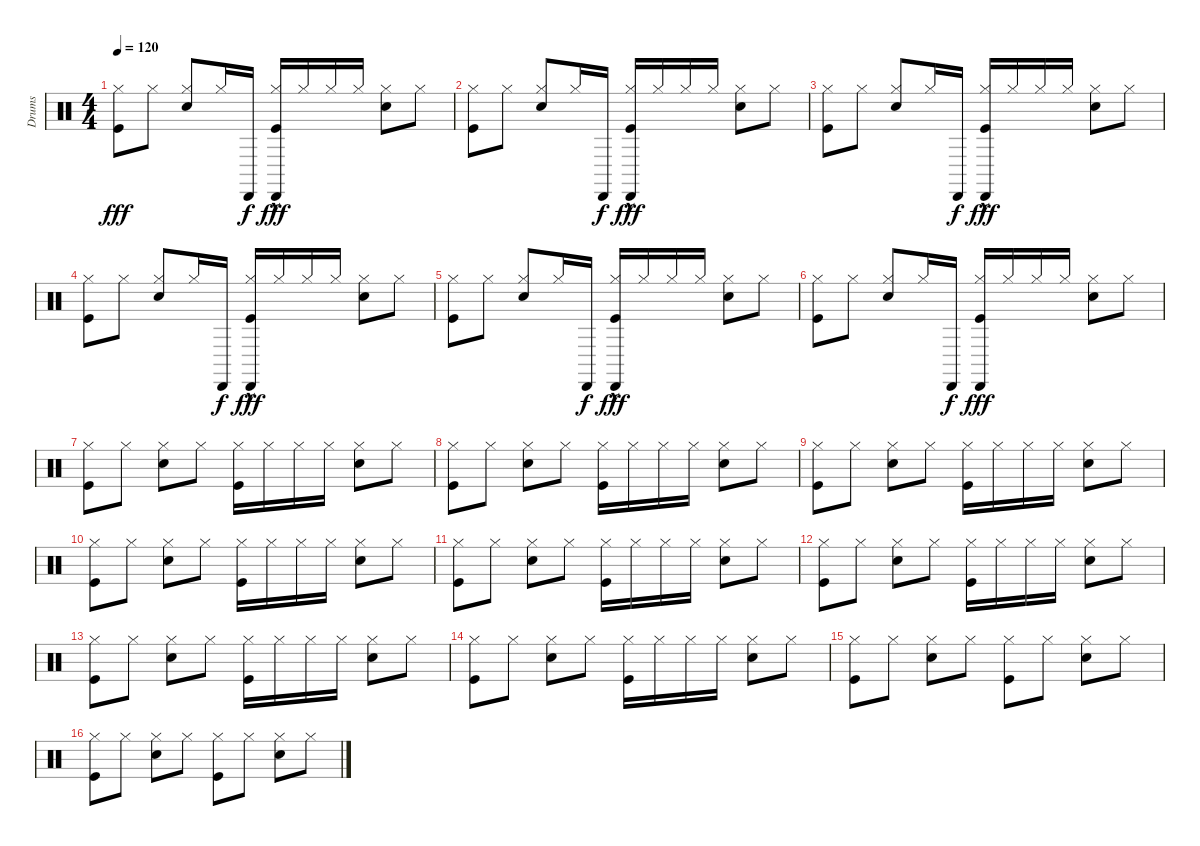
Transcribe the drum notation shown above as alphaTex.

\track ("Drums" "Drums") {instrument percussion}
\staff {score}
\articulation defaults
\ts (4 4)
\tempo 120
\clef neutral
\ks c
("Kick (hit)" "Hi-Hat (closed)").8{dy fff} "Hi-Hat (closed)".8 ("Snare (hit) 2" "Hi-Hat (closed)").8 "Hi-Hat (closed)".16 "Cabasa (hit)".16{dy f} ("Cabasa (hit)"{hac} "Kick (hit)" "Hi-Hat (closed)").16{dy fff} "Hi-Hat (closed)".16 "Hi-Hat (closed)".16 "Hi-Hat (closed)".16 ("Snare (hit) 2" "Hi-Hat (closed)").8 "Hi-Hat (closed)".8 |
("Kick (hit)" "Hi-Hat (closed)").8 "Hi-Hat (closed)".8 ("Snare (hit) 2" "Hi-Hat (closed)").8 "Hi-Hat (closed)".16 "Cabasa (hit)".16{dy f} ("Cabasa (hit)"{hac} "Kick (hit)" "Hi-Hat (closed)").16{dy fff} "Hi-Hat (closed)".16 "Hi-Hat (closed)".16 "Hi-Hat (closed)".16 ("Snare (hit) 2" "Hi-Hat (closed)").8 "Hi-Hat (closed)".8 |
("Kick (hit)" "Hi-Hat (closed)").8 "Hi-Hat (closed)".8 ("Snare (hit) 2" "Hi-Hat (closed)").8 "Hi-Hat (closed)".16 "Cabasa (hit)".16{dy f} ("Cabasa (hit)"{hac} "Kick (hit)" "Hi-Hat (closed)").16{dy fff} "Hi-Hat (closed)".16 "Hi-Hat (closed)".16 "Hi-Hat (closed)".16 ("Snare (hit) 2" "Hi-Hat (closed)").8 "Hi-Hat (closed)".8 |
("Kick (hit)" "Hi-Hat (closed)").8 "Hi-Hat (closed)".8 ("Snare (hit) 2" "Hi-Hat (closed)").8 "Hi-Hat (closed)".16 "Cabasa (hit)".16{dy f} ("Cabasa (hit)"{hac} "Kick (hit)" "Hi-Hat (closed)").16{dy fff} "Hi-Hat (closed)".16 "Hi-Hat (closed)".16 "Hi-Hat (closed)".16 ("Snare (hit) 2" "Hi-Hat (closed)").8 "Hi-Hat (closed)".8 |
("Kick (hit)" "Hi-Hat (closed)").8 "Hi-Hat (closed)".8 ("Snare (hit) 2" "Hi-Hat (closed)").8 "Hi-Hat (closed)".16 "Cabasa (hit)".16{dy f} ("Cabasa (hit)"{hac} "Kick (hit)" "Hi-Hat (closed)").16{dy fff} "Hi-Hat (closed)".16 "Hi-Hat (closed)".16 "Hi-Hat (closed)".16 ("Snare (hit) 2" "Hi-Hat (closed)").8 "Hi-Hat (closed)".8 |
("Kick (hit)" "Hi-Hat (closed)").8 "Hi-Hat (closed)".8 ("Snare (hit) 2" "Hi-Hat (closed)").8 "Hi-Hat (closed)".16 "Cabasa (hit)".16{dy f} ("Cabasa (hit)" "Kick (hit)" "Hi-Hat (closed)").16{dy fff} "Hi-Hat (closed)".16 "Hi-Hat (closed)".16 "Hi-Hat (closed)".16 ("Snare (hit) 2" "Hi-Hat (closed)").8 "Hi-Hat (closed)".8 |
("Kick (hit)" "Hi-Hat (closed)").8 "Hi-Hat (closed)".8 ("Snare (hit) 2" "Hi-Hat (closed)").8 "Hi-Hat (closed)".8 ("Kick (hit)" "Hi-Hat (closed)").16 "Hi-Hat (closed)".16 "Hi-Hat (closed)".16 "Hi-Hat (closed)".16 ("Snare (hit) 2" "Hi-Hat (closed)").8 "Hi-Hat (closed)".8 |
("Kick (hit)" "Hi-Hat (closed)").8 "Hi-Hat (closed)".8 ("Snare (hit) 2" "Hi-Hat (closed)").8 "Hi-Hat (closed)".8 ("Kick (hit)" "Hi-Hat (closed)").16 "Hi-Hat (closed)".16 "Hi-Hat (closed)".16 "Hi-Hat (closed)".16 ("Snare (hit) 2" "Hi-Hat (closed)").8 "Hi-Hat (closed)".8 |
("Kick (hit)" "Hi-Hat (closed)").8 "Hi-Hat (closed)".8 ("Snare (hit) 2" "Hi-Hat (closed)").8 "Hi-Hat (closed)".8 ("Kick (hit)" "Hi-Hat (closed)").16 "Hi-Hat (closed)".16 "Hi-Hat (closed)".16 "Hi-Hat (closed)".16 ("Snare (hit) 2" "Hi-Hat (closed)").8 "Hi-Hat (closed)".8 |
("Kick (hit)" "Hi-Hat (closed)").8 "Hi-Hat (closed)".8 ("Snare (hit) 2" "Hi-Hat (closed)").8 "Hi-Hat (closed)".8 ("Kick (hit)" "Hi-Hat (closed)").16 "Hi-Hat (closed)".16 "Hi-Hat (closed)".16 "Hi-Hat (closed)".16 ("Snare (hit) 2" "Hi-Hat (closed)").8 "Hi-Hat (closed)".8 |
("Kick (hit)" "Hi-Hat (closed)").8 "Hi-Hat (closed)".8 ("Snare (hit) 2" "Hi-Hat (closed)").8 "Hi-Hat (closed)".8 ("Kick (hit)" "Hi-Hat (closed)").16 "Hi-Hat (closed)".16 "Hi-Hat (closed)".16 "Hi-Hat (closed)".16 ("Snare (hit) 2" "Hi-Hat (closed)").8 "Hi-Hat (closed)".8 |
("Kick (hit)" "Hi-Hat (closed)").8 "Hi-Hat (closed)".8 ("Snare (hit) 2" "Hi-Hat (closed)").8 "Hi-Hat (closed)".8 ("Kick (hit)" "Hi-Hat (closed)").16 "Hi-Hat (closed)".16 "Hi-Hat (closed)".16 "Hi-Hat (closed)".16 ("Snare (hit) 2" "Hi-Hat (closed)").8 "Hi-Hat (closed)".8 |
("Kick (hit)" "Hi-Hat (closed)").8 "Hi-Hat (closed)".8 ("Snare (hit) 2" "Hi-Hat (closed)").8 "Hi-Hat (closed)".8 ("Kick (hit)" "Hi-Hat (closed)").16 "Hi-Hat (closed)".16 "Hi-Hat (closed)".16 "Hi-Hat (closed)".16 ("Snare (hit) 2" "Hi-Hat (closed)").8 "Hi-Hat (closed)".8 |
("Kick (hit)" "Hi-Hat (closed)").8 "Hi-Hat (closed)".8 ("Snare (hit) 2" "Hi-Hat (closed)").8 "Hi-Hat (closed)".8 ("Kick (hit)" "Hi-Hat (closed)").16 "Hi-Hat (closed)".16 "Hi-Hat (closed)".16 "Hi-Hat (closed)".16 ("Snare (hit) 2" "Hi-Hat (closed)").8 "Hi-Hat (closed)".8 |
("Kick (hit)" "Hi-Hat (closed)").8 "Hi-Hat (closed)".8 ("Snare (hit) 2" "Hi-Hat (closed)").8 "Hi-Hat (closed)".8 ("Kick (hit)" "Hi-Hat (closed)").8 "Hi-Hat (closed)".8 ("Snare (hit) 2" "Hi-Hat (closed)").8 "Hi-Hat (closed)".8 |
("Kick (hit)" "Hi-Hat (closed)").8 "Hi-Hat (closed)".8 ("Snare (hit) 2" "Hi-Hat (closed)").8 "Hi-Hat (closed)".8 ("Kick (hit)" "Hi-Hat (closed)").8 "Hi-Hat (closed)".8 ("Snare (hit) 2" "Hi-Hat (closed)").8 "Hi-Hat (closed)".8
